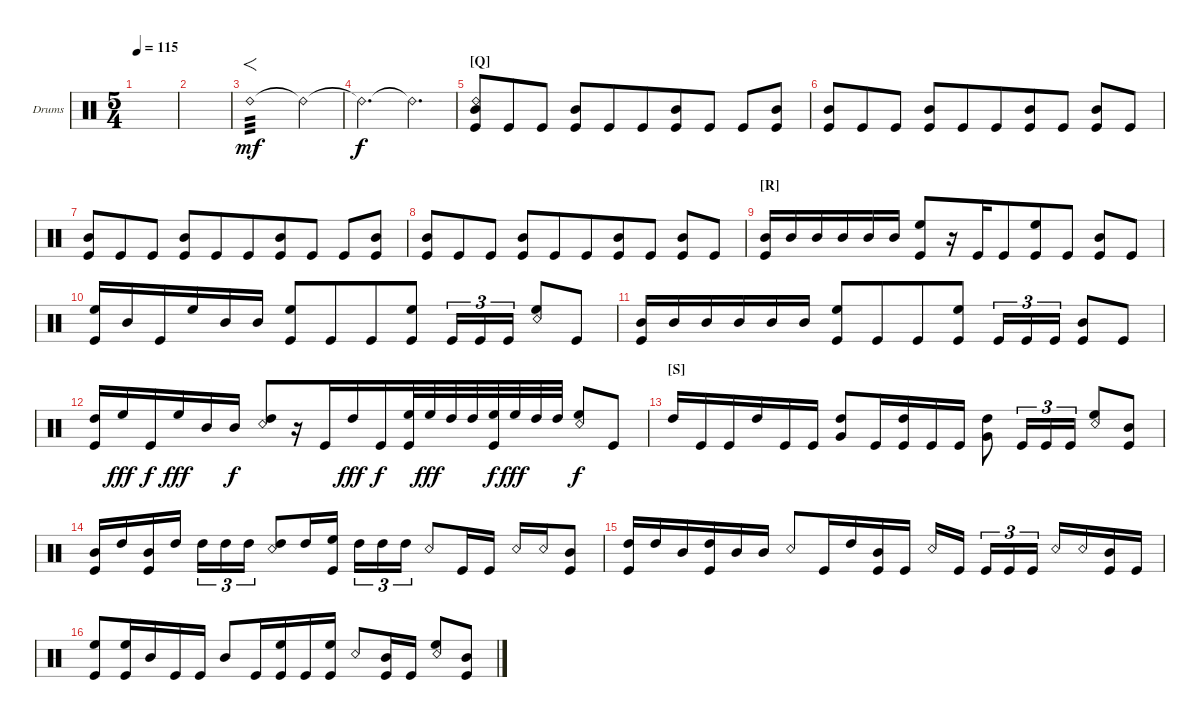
\defaultSystemsLayout 4
\bracketExtendMode groupsimilarinstruments
\firstSystemTrackNameOrientation horizontal
\otherSystemsTrackNameOrientation horizontal
\track ("Drumkit" "Drums") {instrument percussion}
\staff {score}
\articulation defaults
\ts (5 4)
\tempo 115
\clef neutral
\scale
0.333333
\ks c
|
\scale
0.333333 |
\scale
0.333333 "Ride (bell) 2".1{f tp 3 dy mf} "Ride (bell) 2"{t}.4 |
\scale
0.333333 "Ride (bell) 2"{t}.2{d dy f} "Ride (bell) 2"{t}.4{d} |
\beaming (8 3 5 2)
\section ("Q" "")
\scale
0.333333 ("Kick (hit)" "Mid Tom (hit)" "Ride (bell) 2").8 "Kick (hit)".8 "Kick (hit)".8 ("Kick (hit)" "Mid Tom (hit)").8 "Kick (hit)".8 "Kick (hit)".8 ("Kick (hit)" "Mid Tom (hit)").8 "Kick (hit)".8 "Kick (hit)".8 ("Kick (hit)" "Mid Tom (hit)").8 |
\scale
0.333333 ("Kick (hit)" "Mid Tom (hit)").8 "Kick (hit)".8 "Kick (hit)".8 ("Kick (hit)" "Mid Tom (hit)").8 "Kick (hit)".8 "Kick (hit)".8 ("Kick (hit)" "Mid Tom (hit)").8 "Kick (hit)".8 ("Kick (hit)" "Mid Tom (hit)").8 "Kick (hit)".8 |
\scale
0.333333 ("Kick (hit)" "Mid Tom (hit)").8 "Kick (hit)".8 "Kick (hit)".8 ("Kick (hit)" "Mid Tom (hit)").8 "Kick (hit)".8 "Kick (hit)".8 ("Kick (hit)" "Mid Tom (hit)").8 "Kick (hit)".8 "Kick (hit)".8 ("Kick (hit)" "Mid Tom (hit)").8 |
\scale
0.333333 ("Kick (hit)" "Mid Tom (hit)").8 "Kick (hit)".8 "Kick (hit)".8 ("Kick (hit)" "Mid Tom (hit)").8 "Kick (hit)".8 "Kick (hit)".8 ("Kick (hit)" "Mid Tom (hit)").8 "Kick (hit)".8 ("Kick (hit)" "Mid Tom (hit)").8 "Kick (hit)".8 |
\section ("R" "")
\scale
0.333333 ("Kick (hit)" "Mid Tom (hit)").16 "Mid Tom (hit)".16 "Mid Tom (hit)".16 "Mid Tom (hit)".16 "Mid Tom (hit)".16 "Mid Tom (hit)".16 ("High Floor Tom (hit)" "Kick (hit)").8 r.16 "Kick (hit)".16 "Kick (hit)".8 ("Kick (hit)" "High Floor Tom (hit)").8 "Kick (hit)".8 ("Kick (hit)" "Mid Tom (hit)").8 "Kick (hit)".8 |
\scale
0.333333 ("Kick (hit)" "High Floor Tom (hit)").16 "Mid Tom (hit)".16 "Kick (hit)".16 "High Floor Tom (hit)".16 "Mid Tom (hit)".16 "Mid Tom (hit)".16 ("High Floor Tom (hit)" "Kick (hit)").8 "Kick (hit)".8 "Kick (hit)".8 ("Kick (hit)" "High Floor Tom (hit)").8 "Kick (hit)".16{tu (3 2)} "Kick (hit)".16{tu (3 2)} "Kick (hit)".16{tu (3 2)} ("Snare (rim shot)" "High Floor Tom (hit)").8 "Kick (hit)".8 |
\scale
0.333333 ("Kick (hit)" "Mid Tom (hit)").16 "Mid Tom (hit)".16 "Mid Tom (hit)".16 "Mid Tom (hit)".16 "Mid Tom (hit)".16 "Mid Tom (hit)".16 ("High Floor Tom (hit)" "Kick (hit)").8 "Kick (hit)".8 "Kick (hit)".8 ("Kick (hit)" "High Floor Tom (hit)").8 "Kick (hit)".16{tu (3 2)} "Kick (hit)".16{tu (3 2)} "Kick (hit)".16{tu (3 2)} ("Kick (hit)" "Mid Tom (hit)").8 "Kick (hit)".8 |
\scale
0.333333 ("Kick (hit)" "High Tom (hit)").16 "High Floor Tom (hit)".16{dy fff} "Kick (hit)".16{dy f} "High Floor Tom (hit)".16{dy fff} "Mid Tom (hit)".16 "Mid Tom (hit)".16{dy f} ("Snare (rim shot)" "High Tom (hit)").8 r.16 "Kick (hit)".16 "High Tom (hit)".16{dy fff} "Kick (hit)".16{dy f} ("High Floor Tom (hit)" "Kick (hit)").32 "High Floor Tom (hit)".32{dy fff} "High Tom (hit)".32 "High Tom (hit)".32 ("High Floor Tom (hit)" "Kick (hit)").32{dy f} "High Floor Tom (hit)".32{dy fff} "High Tom (hit)".32 "High Tom (hit)".32 ("High Floor Tom (hit)" "Snare (rim shot)").8{dy f} "Kick (hit)".8 |
\beaming (8 3 3 2 2)
\section ("S" "")
\scale
0.333333 "High Tom (hit)".16 "Kick (hit)".16 "Kick (hit)".16 "High Tom (hit)".16 "Kick (hit)".16 "Kick (hit)".16 ("Very Low Tom (hit)" "High Tom (hit)").8 "Kick (hit)".16 ("Kick (hit)" "High Tom (hit)").16 "Kick (hit)".16 "Kick (hit)".16 ("High Tom (hit)" "Very Low Tom (hit)").8 "Kick (hit)".16{tu (3 2)} "Kick (hit)".16{tu (3 2)} "Kick (hit)".16{tu (3 2)} ("Snare (rim shot)" "High Floor Tom (hit)").8 ("Mid Tom (hit)" "Kick (hit)").8 |
\scale
0.333333 ("Mid Tom (hit)" "Kick (hit)").16 "High Tom (hit)".16 ("Mid Tom (hit)" "Kick (hit)").16 "High Tom (hit)".16 "High Tom (hit)".16{tu (3 2)} "High Tom (hit)".16{tu (3 2)} "High Tom (hit)".16{tu (3 2)} ("Snare (rim shot)" "High Tom (hit)").8 "High Tom (hit)".16 ("High Floor Tom (hit)" "Kick (hit)").16 "High Tom (hit)".16{tu (3 2)} "High Tom (hit)".16{tu (3 2)} "High Tom (hit)".16{tu (3 2)} "Snare (rim shot)".8 "Kick (hit)".16 "Kick (hit)".16 "Snare (rim shot)".16 "Snare (rim shot)".16 ("Mid Tom (hit)" "Kick (hit)").8 |
\scale
0.333333 ("Kick (hit)" "High Tom (hit)").16 "High Tom (hit)".16 "Mid Tom (hit)".16 ("Kick (hit)" "High Tom (hit)").16 "Mid Tom (hit)".16 "Mid Tom (hit)".16 "Snare (rim shot)".8 "Kick (hit)".16 "High Tom (hit)".16 ("Mid Tom (hit)" "Kick (hit)").16 "Kick (hit)".16 "Snare (rim shot)".16 "Kick (hit)".16 "Kick (hit)".16{tu (3 2)} "Kick (hit)".16{tu (3 2)} "Kick (hit)".16{tu (3 2)} "Snare (rim shot)".16 "Snare (rim shot)".16 ("Mid Tom (hit)" "Kick (hit)").16 "Kick (hit)".16 |
\scale
0.333333 ("Kick (hit)" "High Floor Tom (hit)").8 ("High Floor Tom (hit)" "Kick (hit)").16 "Mid Tom (hit)".16 "Kick (hit)".16 "Kick (hit)".16 "Mid Tom (hit)".8 "Kick (hit)".16 ("Kick (hit)" "High Floor Tom (hit)").16 "Kick (hit)".16 ("Kick (hit)" "High Floor Tom (hit)").16 "Snare (rim shot)".8 ("Mid Tom (hit)" "Kick (hit)").16 "Kick (hit)".16 ("Snare (rim shot)" "High Floor Tom (hit)").8 ("Mid Tom (hit)" "Kick (hit)").8
